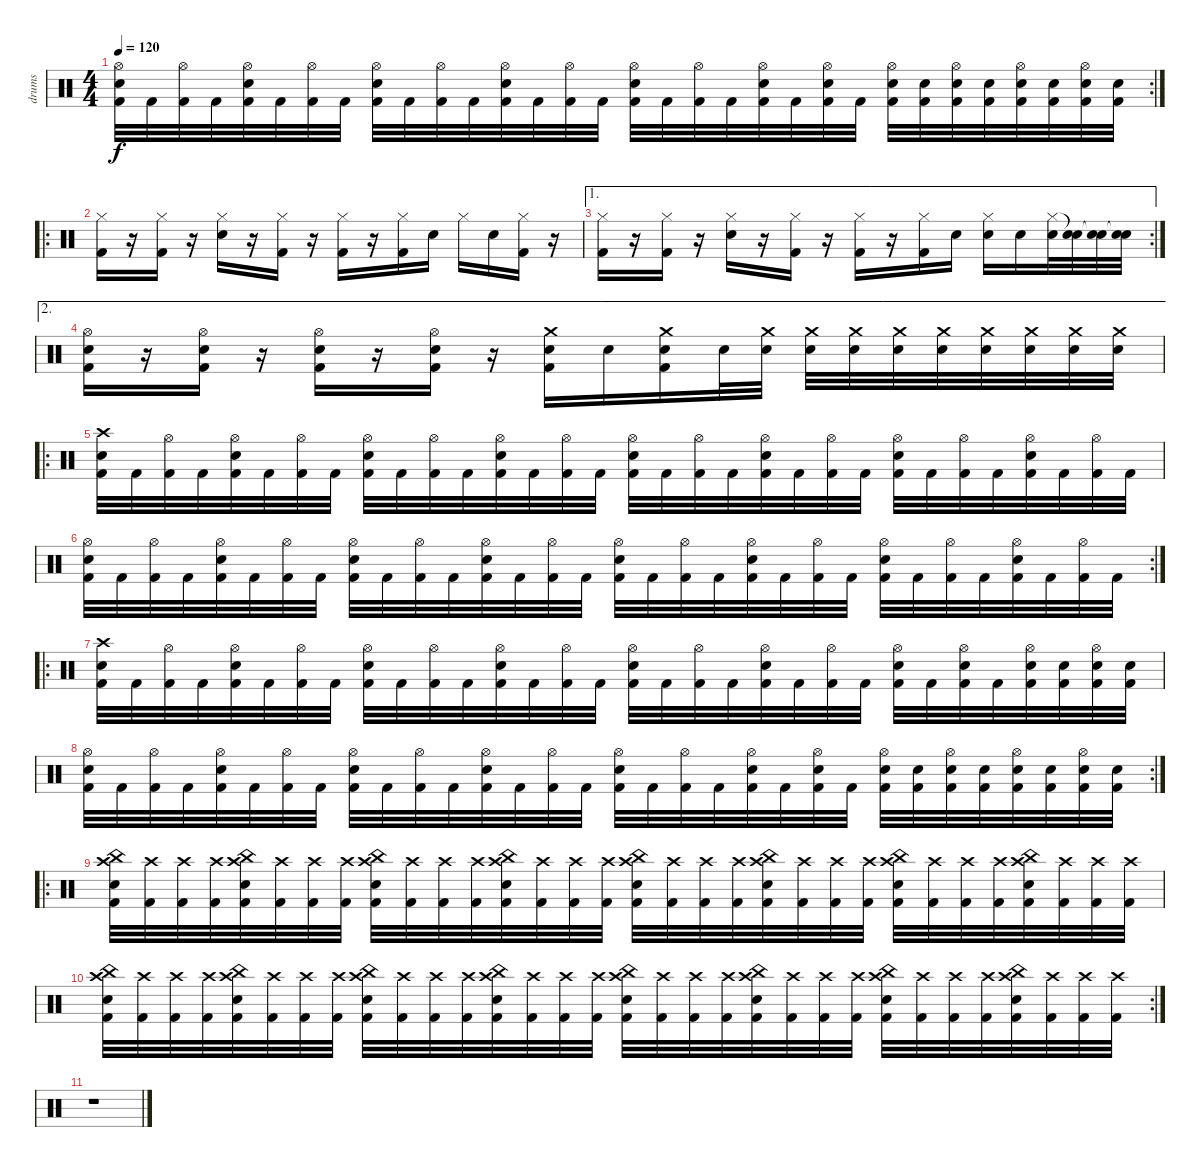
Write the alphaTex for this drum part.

\track ("drums" "drums") {instrument percussion}
\staff {score}
\articulation defaults
\rc 2
\ts (4 4)
\tempo 120
\clef neutral
\ks c
("Hi-Hat (open)" "Electric Snare (hit)" "Kick (hit) 2").32{dy f} "Kick (hit) 2".32 ("Hi-Hat (open)" "Kick (hit) 2").32 "Kick (hit) 2".32 ("Hi-Hat (open)" "Electric Snare (hit)" "Kick (hit) 2").32 "Kick (hit) 2".32 ("Hi-Hat (open)" "Kick (hit) 2").32 "Kick (hit) 2".32 ("Hi-Hat (open)" "Electric Snare (hit)" "Kick (hit) 2").32 "Kick (hit) 2".32 ("Hi-Hat (open)" "Kick (hit) 2").32 "Kick (hit) 2".32 ("Hi-Hat (open)" "Electric Snare (hit)" "Kick (hit) 2").32 "Kick (hit) 2".32 ("Hi-Hat (open)" "Kick (hit) 2").32 "Kick (hit) 2".32 ("Hi-Hat (open)" "Electric Snare (hit)" "Kick (hit) 2").32 "Kick (hit) 2".32 ("Hi-Hat (open)" "Kick (hit) 2").32 "Kick (hit) 2".32 ("Hi-Hat (open)" "Electric Snare (hit)" "Kick (hit) 2").32 "Kick (hit) 2".32 ("Hi-Hat (open)" "Electric Snare (hit)" "Kick (hit) 2").32 "Kick (hit) 2".32 ("Hi-Hat (open)" "Electric Snare (hit)" "Kick (hit) 2").32 ("Electric Snare (hit)" "Kick (hit) 2").32 ("Hi-Hat (open)" "Electric Snare (hit)" "Kick (hit) 2").32 ("Electric Snare (hit)" "Kick (hit) 2").32 ("Hi-Hat (open)" "Electric Snare (hit)" "Kick (hit) 2").32 ("Electric Snare (hit)" "Kick (hit) 2").32 ("Hi-Hat (open)" "Electric Snare (hit)" "Kick (hit) 2").32 ("Electric Snare (hit)" "Kick (hit) 2").32 |
\ro
("Hi-Hat (closed)" "Kick (hit) 2").16 r.16 ("Hi-Hat (closed)" "Kick (hit) 2").16 r.16 ("Hi-Hat (closed)" "Electric Snare (hit)").16 r.16 ("Hi-Hat (closed)" "Kick (hit) 2").16 r.16 ("Hi-Hat (closed)" "Kick (hit) 2").16 r.16 ("Hi-Hat (closed)" "Kick (hit) 2").16 "Electric Snare (hit)".16 "Hi-Hat (closed)".16 "Electric Snare (hit)".16 ("Hi-Hat (closed)" "Kick (hit) 2").16 r.16 |
\ae 1
\rc 2
("Hi-Hat (closed)" "Kick (hit) 2").16 r.16 ("Hi-Hat (closed)" "Kick (hit) 2").16 r.16 ("Hi-Hat (closed)" "Electric Snare (hit)").16 r.16 ("Hi-Hat (closed)" "Kick (hit) 2").16 r.16 ("Hi-Hat (closed)" "Kick (hit) 2").16 r.16 ("Hi-Hat (closed)" "Kick (hit) 2").16 "Electric Snare (hit)".16 ("Hi-Hat (closed)" "Electric Snare (hit)").16 "Electric Snare (hit)".16 ("Hi-Hat (closed)" "Electric Snare (hit)").32 ("Snare (hit)"{t} "Electric Snare (hit)").32 ("Snare (hit)"{t} "Electric Snare (hit)").32 ("Snare (hit)"{t} "Electric Snare (hit)").32 |
\ae 2
("Hi-Hat (open)" "Electric Snare (hit)" "Kick (hit) 2").16 r.16 ("Hi-Hat (open)" "Electric Snare (hit)" "Kick (hit) 2").16 r.16 ("Hi-Hat (open)" "Electric Snare (hit)" "Kick (hit) 2").16 r.16 ("Hi-Hat (open)" "Electric Snare (hit)" "Kick (hit) 2").16 r.16 ("Crash medium (hit)" "Electric Snare (hit)" "Kick (hit) 2").16 "Electric Snare (hit)".16 ("Crash medium (hit)" "Electric Snare (hit)" "Kick (hit) 2").16 "Electric Snare (hit)".32 ("Crash medium (hit)" "Electric Snare (hit)").32 ("Crash medium (hit)" "Electric Snare (hit)").32 ("Crash medium (hit)" "Electric Snare (hit)").32 ("Crash medium (hit)" "Electric Snare (hit)").32 ("Crash medium (hit)" "Electric Snare (hit)").32 ("Crash medium (hit)" "Electric Snare (hit)").32 ("Crash medium (hit)" "Electric Snare (hit)").32 ("Crash medium (hit)" "Electric Snare (hit)").32 ("Crash medium (hit)" "Electric Snare (hit)").32 |
\ro
("Crash high (hit)" "Electric Snare (hit)" "Kick (hit) 2").32 "Kick (hit) 2".32 ("Hi-Hat (open)" "Kick (hit) 2").32 "Kick (hit) 2".32 ("Hi-Hat (open)" "Electric Snare (hit)" "Kick (hit) 2").32 "Kick (hit) 2".32 ("Hi-Hat (open)" "Kick (hit) 2").32 "Kick (hit) 2".32 ("Hi-Hat (open)" "Electric Snare (hit)" "Kick (hit) 2").32 "Kick (hit) 2".32 ("Hi-Hat (open)" "Kick (hit) 2").32 "Kick (hit) 2".32 ("Hi-Hat (open)" "Electric Snare (hit)" "Kick (hit) 2").32 "Kick (hit) 2".32 ("Hi-Hat (open)" "Kick (hit) 2").32 "Kick (hit) 2".32 ("Hi-Hat (open)" "Electric Snare (hit)" "Kick (hit) 2").32 "Kick (hit) 2".32 ("Hi-Hat (open)" "Kick (hit) 2").32 "Kick (hit) 2".32 ("Hi-Hat (open)" "Electric Snare (hit)" "Kick (hit) 2").32 "Kick (hit) 2".32 ("Hi-Hat (open)" "Kick (hit) 2").32 "Kick (hit) 2".32 ("Hi-Hat (open)" "Electric Snare (hit)" "Kick (hit) 2").32 "Kick (hit) 2".32 ("Hi-Hat (open)" "Kick (hit) 2").32 "Kick (hit) 2".32 ("Hi-Hat (open)" "Electric Snare (hit)" "Kick (hit) 2").32 "Kick (hit) 2".32 ("Hi-Hat (open)" "Kick (hit) 2").32 "Kick (hit) 2".32 |
\rc 2
("Hi-Hat (open)" "Electric Snare (hit)" "Kick (hit) 2").32 "Kick (hit) 2".32 ("Hi-Hat (open)" "Kick (hit) 2").32 "Kick (hit) 2".32 ("Hi-Hat (open)" "Electric Snare (hit)" "Kick (hit) 2").32 "Kick (hit) 2".32 ("Hi-Hat (open)" "Kick (hit) 2").32 "Kick (hit) 2".32 ("Hi-Hat (open)" "Electric Snare (hit)" "Kick (hit) 2").32 "Kick (hit) 2".32 ("Hi-Hat (open)" "Kick (hit) 2").32 "Kick (hit) 2".32 ("Hi-Hat (open)" "Electric Snare (hit)" "Kick (hit) 2").32 "Kick (hit) 2".32 ("Hi-Hat (open)" "Kick (hit) 2").32 "Kick (hit) 2".32 ("Hi-Hat (open)" "Electric Snare (hit)" "Kick (hit) 2").32 "Kick (hit) 2".32 ("Hi-Hat (open)" "Kick (hit) 2").32 "Kick (hit) 2".32 ("Hi-Hat (open)" "Electric Snare (hit)" "Kick (hit) 2").32 "Kick (hit) 2".32 ("Hi-Hat (open)" "Kick (hit) 2").32 "Kick (hit) 2".32 ("Hi-Hat (open)" "Electric Snare (hit)" "Kick (hit) 2").32 "Kick (hit) 2".32 ("Hi-Hat (open)" "Kick (hit) 2").32 "Kick (hit) 2".32 ("Hi-Hat (open)" "Electric Snare (hit)" "Kick (hit) 2").32 "Kick (hit) 2".32 ("Hi-Hat (open)" "Kick (hit) 2").32 "Kick (hit) 2".32 |
\ro
("Crash high (hit)" "Electric Snare (hit)" "Kick (hit) 2").32 "Kick (hit) 2".32 ("Hi-Hat (open)" "Kick (hit) 2").32 "Kick (hit) 2".32 ("Hi-Hat (open)" "Electric Snare (hit)" "Kick (hit) 2").32 "Kick (hit) 2".32 ("Hi-Hat (open)" "Kick (hit) 2").32 "Kick (hit) 2".32 ("Hi-Hat (open)" "Electric Snare (hit)" "Kick (hit) 2").32 "Kick (hit) 2".32 ("Hi-Hat (open)" "Kick (hit) 2").32 "Kick (hit) 2".32 ("Hi-Hat (open)" "Electric Snare (hit)" "Kick (hit) 2").32 "Kick (hit) 2".32 ("Hi-Hat (open)" "Kick (hit) 2").32 "Kick (hit) 2".32 ("Hi-Hat (open)" "Electric Snare (hit)" "Kick (hit) 2").32 "Kick (hit) 2".32 ("Hi-Hat (open)" "Kick (hit) 2").32 "Kick (hit) 2".32 ("Hi-Hat (open)" "Electric Snare (hit)" "Kick (hit) 2").32 "Kick (hit) 2".32 ("Hi-Hat (open)" "Kick (hit) 2").32 "Kick (hit) 2".32 ("Hi-Hat (open)" "Electric Snare (hit)" "Kick (hit) 2").32 "Kick (hit) 2".32 ("Hi-Hat (open)" "Electric Snare (hit)" "Kick (hit) 2").32 "Kick (hit) 2".32 ("Hi-Hat (open)" "Electric Snare (hit)" "Kick (hit) 2").32 ("Electric Snare (hit)" "Kick (hit) 2").32 ("Hi-Hat (open)" "Electric Snare (hit)" "Kick (hit) 2").32 ("Electric Snare (hit)" "Kick (hit) 2").32 |
\rc 2
("Hi-Hat (open)" "Electric Snare (hit)" "Kick (hit) 2").32 "Kick (hit) 2".32 ("Hi-Hat (open)" "Kick (hit) 2").32 "Kick (hit) 2".32 ("Hi-Hat (open)" "Electric Snare (hit)" "Kick (hit) 2").32 "Kick (hit) 2".32 ("Hi-Hat (open)" "Kick (hit) 2").32 "Kick (hit) 2".32 ("Hi-Hat (open)" "Electric Snare (hit)" "Kick (hit) 2").32 "Kick (hit) 2".32 ("Hi-Hat (open)" "Kick (hit) 2").32 "Kick (hit) 2".32 ("Hi-Hat (open)" "Electric Snare (hit)" "Kick (hit) 2").32 "Kick (hit) 2".32 ("Hi-Hat (open)" "Kick (hit) 2").32 "Kick (hit) 2".32 ("Hi-Hat (open)" "Electric Snare (hit)" "Kick (hit) 2").32 "Kick (hit) 2".32 ("Hi-Hat (open)" "Kick (hit) 2").32 "Kick (hit) 2".32 ("Hi-Hat (open)" "Electric Snare (hit)" "Kick (hit) 2").32 "Kick (hit) 2".32 ("Hi-Hat (open)" "Electric Snare (hit)" "Kick (hit) 2").32 "Kick (hit) 2".32 ("Hi-Hat (open)" "Electric Snare (hit)" "Kick (hit) 2").32 ("Electric Snare (hit)" "Kick (hit) 2").32 ("Hi-Hat (open)" "Electric Snare (hit)" "Kick (hit) 2").32 ("Electric Snare (hit)" "Kick (hit) 2").32 ("Hi-Hat (open)" "Electric Snare (hit)" "Kick (hit) 2").32 ("Electric Snare (hit)" "Kick (hit) 2").32 ("Hi-Hat (open)" "Electric Snare (hit)" "Kick (hit) 2").32 ("Electric Snare (hit)" "Kick (hit) 2").32 |
\ro
("China (hit)" "Crash high (hit)" "Electric Snare (hit)" "Kick (hit) 2").32 ("Crash high (hit)" "Kick (hit) 2").32 ("Crash high (hit)" "Kick (hit) 2").32 ("Crash high (hit)" "Kick (hit) 2").32 ("China (hit)" "Crash high (hit)" "Electric Snare (hit)" "Kick (hit) 2").32 ("Crash high (hit)" "Kick (hit) 2").32 ("Crash high (hit)" "Kick (hit) 2").32 ("Crash high (hit)" "Kick (hit) 2").32 ("China (hit)" "Crash high (hit)" "Electric Snare (hit)" "Kick (hit) 2").32 ("Crash high (hit)" "Kick (hit) 2").32 ("Crash high (hit)" "Kick (hit) 2").32 ("Crash high (hit)" "Kick (hit) 2").32 ("China (hit)" "Crash high (hit)" "Electric Snare (hit)" "Kick (hit) 2").32 ("Crash high (hit)" "Kick (hit) 2").32 ("Crash high (hit)" "Kick (hit) 2").32 ("Crash high (hit)" "Kick (hit) 2").32 ("China (hit)" "Crash high (hit)" "Electric Snare (hit)" "Kick (hit) 2").32 ("Crash high (hit)" "Kick (hit) 2").32 ("Crash high (hit)" "Kick (hit) 2").32 ("Crash high (hit)" "Kick (hit) 2").32 ("China (hit)" "Crash high (hit)" "Electric Snare (hit)" "Kick (hit) 2").32 ("Crash high (hit)" "Kick (hit) 2").32 ("Crash high (hit)" "Kick (hit) 2").32 ("Crash high (hit)" "Kick (hit) 2").32 ("China (hit)" "Crash high (hit)" "Electric Snare (hit)" "Kick (hit) 2").32 ("Crash high (hit)" "Kick (hit) 2").32 ("Crash high (hit)" "Kick (hit) 2").32 ("Crash high (hit)" "Kick (hit) 2").32 ("China (hit)" "Crash high (hit)" "Electric Snare (hit)" "Kick (hit) 2").32 ("Crash high (hit)" "Kick (hit) 2").32 ("Crash high (hit)" "Kick (hit) 2").32 ("Crash high (hit)" "Kick (hit) 2").32 |
\rc 2
("China (hit)" "Crash high (hit)" "Electric Snare (hit)" "Kick (hit) 2").32 ("Crash high (hit)" "Kick (hit) 2").32 ("Crash high (hit)" "Kick (hit) 2").32 ("Crash high (hit)" "Kick (hit) 2").32 ("China (hit)" "Crash high (hit)" "Electric Snare (hit)" "Kick (hit) 2").32 ("Crash high (hit)" "Kick (hit) 2").32 ("Crash high (hit)" "Kick (hit) 2").32 ("Crash high (hit)" "Kick (hit) 2").32 ("China (hit)" "Crash high (hit)" "Electric Snare (hit)" "Kick (hit) 2").32 ("Crash high (hit)" "Kick (hit) 2").32 ("Crash high (hit)" "Kick (hit) 2").32 ("Crash high (hit)" "Kick (hit) 2").32 ("China (hit)" "Crash high (hit)" "Electric Snare (hit)" "Kick (hit) 2").32 ("Crash high (hit)" "Kick (hit) 2").32 ("Crash high (hit)" "Kick (hit) 2").32 ("Crash high (hit)" "Kick (hit) 2").32 ("China (hit)" "Crash high (hit)" "Electric Snare (hit)" "Kick (hit) 2").32 ("Crash high (hit)" "Kick (hit) 2").32 ("Crash high (hit)" "Kick (hit) 2").32 ("Crash high (hit)" "Kick (hit) 2").32 ("China (hit)" "Crash high (hit)" "Electric Snare (hit)" "Kick (hit) 2").32 ("Crash high (hit)" "Kick (hit) 2").32 ("Crash high (hit)" "Kick (hit) 2").32 ("Crash high (hit)" "Kick (hit) 2").32 ("China (hit)" "Crash high (hit)" "Electric Snare (hit)" "Kick (hit) 2").32 ("Crash high (hit)" "Kick (hit) 2").32 ("Crash high (hit)" "Kick (hit) 2").32 ("Crash high (hit)" "Kick (hit) 2").32 ("China (hit)" "Crash high (hit)" "Electric Snare (hit)" "Kick (hit) 2").32 ("Crash high (hit)" "Kick (hit) 2").32 ("Crash high (hit)" "Kick (hit) 2").32 ("Crash high (hit)" "Kick (hit) 2").32 |
r.1
